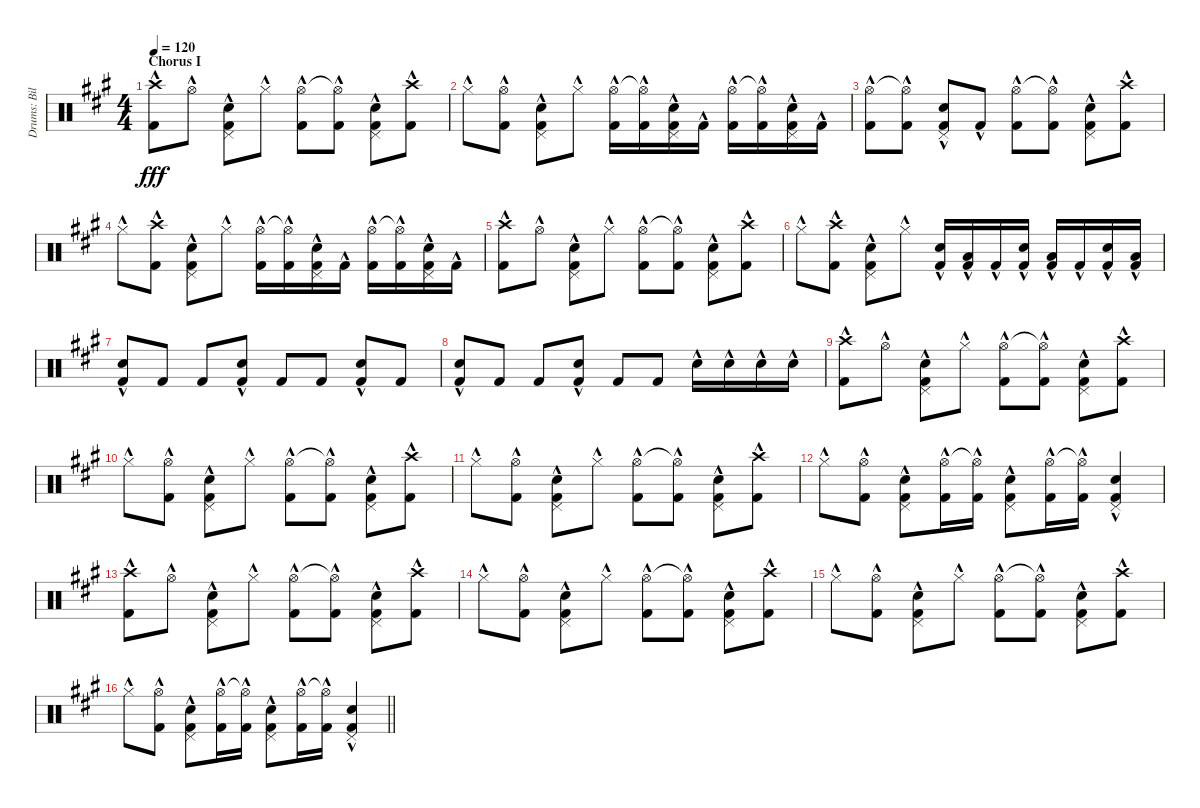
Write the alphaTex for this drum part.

\track ("Drums: Bill" "Drums: Bil") {instrument percussion}
\staff {score}
\articulation defaults
\ts (4 4)
\section ("" "Chorus I")
\tempo 120
\clef neutral
\ks a
("Crash high (hit)"{hac} "Kick (hit) 2"{hac}).8{dy fff} "Hi-Hat (open)"{hac}.8 ("Pedal Hi-Hat (hit)"{hac} "Snare (hit) 2"{hac} "Kick (hit) 2"{hac}).8 "Hi-Hat (closed)"{hac}.8 ("Hi-Hat (open)"{hac} "Kick (hit) 2"{hac}).8 ("Hi-Hat (open)"{t} "Kick (hit) 2"{hac}).8 ("Pedal Hi-Hat (hit)"{hac} "Snare (hit) 2"{hac} "Kick (hit) 2"{hac}).8 ("Crash high (hit)"{hac} "Kick (hit) 2"{hac}).8 |
"Hi-Hat (closed)"{hac}.8 ("Hi-Hat (open)"{hac} "Kick (hit) 2"{hac}).8 ("Pedal Hi-Hat (hit)"{hac} "Snare (hit) 2"{hac} "Kick (hit) 2"{hac}).8 "Hi-Hat (closed)"{hac}.8 ("Hi-Hat (open)"{hac} "Kick (hit) 2"{hac}).16 ("Hi-Hat (open)"{t} "Kick (hit) 2"{hac}).16 ("Pedal Hi-Hat (hit)"{hac} "Snare (hit) 2"{hac} "Kick (hit) 2"{hac}).16 "Kick (hit) 2"{hac}.16 ("Hi-Hat (open)"{hac} "Kick (hit) 2"{hac}).16 ("Hi-Hat (open)"{t} "Kick (hit) 2"{hac}).16 ("Pedal Hi-Hat (hit)"{hac} "Snare (hit) 2"{hac} "Kick (hit) 2"{hac}).16 "Kick (hit) 2"{hac}.16 |
("Hi-Hat (open)"{hac} "Kick (hit) 2"{hac}).8 ("Hi-Hat (open)"{t} "Kick (hit) 2"{hac}).8 ("Pedal Hi-Hat (hit)"{hac} "Snare (hit) 2"{hac} "Kick (hit) 2"{hac}).8 "Kick (hit) 2"{hac}.8 ("Hi-Hat (open)"{hac} "Kick (hit) 2"{hac}).8 ("Hi-Hat (open)"{t} "Kick (hit) 2"{hac}).8 ("Pedal Hi-Hat (hit)"{hac} "Snare (hit) 2"{hac} "Kick (hit) 2"{hac}).8 ("Crash high (hit)"{hac} "Kick (hit) 2"{hac}).8 |
"Hi-Hat (closed)"{hac}.8 ("Crash high (hit)"{hac} "Kick (hit) 2"{hac}).8 ("Pedal Hi-Hat (hit)"{hac} "Snare (hit) 2"{hac} "Kick (hit) 2"{hac}).8 "Hi-Hat (closed)"{hac}.8 ("Hi-Hat (open)"{hac} "Kick (hit) 2"{hac}).16 ("Hi-Hat (open)"{t} "Kick (hit) 2"{hac}).16 ("Pedal Hi-Hat (hit)"{hac} "Snare (hit) 2"{hac} "Kick (hit) 2"{hac}).16 "Kick (hit) 2"{hac}.16 ("Hi-Hat (open)"{hac} "Kick (hit) 2"{hac}).16 ("Hi-Hat (open)"{t} "Kick (hit) 2"{hac}).16 ("Pedal Hi-Hat (hit)"{hac} "Snare (hit) 2"{hac} "Kick (hit) 2"{hac}).16 "Kick (hit) 2"{hac}.16 |
("Crash high (hit)"{hac} "Kick (hit) 2"{hac}).8 "Hi-Hat (open)"{hac}.8 ("Pedal Hi-Hat (hit)"{hac} "Snare (hit) 2"{hac} "Kick (hit) 2"{hac}).8 "Hi-Hat (closed)"{hac}.8 ("Hi-Hat (open)"{hac} "Kick (hit) 2"{hac}).8 ("Hi-Hat (open)"{t} "Kick (hit) 2"{hac}).8 ("Pedal Hi-Hat (hit)"{hac} "Snare (hit) 2"{hac} "Kick (hit) 2"{hac}).8 ("Crash high (hit)"{hac} "Kick (hit) 2"{hac}).8 |
"Hi-Hat (closed)"{hac}.8 ("Crash high (hit)"{hac} "Kick (hit) 2"{hac}).8 ("Pedal Hi-Hat (hit)"{hac} "Snare (hit) 2"{hac} "Kick (hit) 2"{hac}).8 "Hi-Hat (closed)"{hac}.8 ("Snare (hit) 2" "Kick (hit) 2"{hac}).16 ("Low Tom (hit)" "Kick (hit) 2"{hac}).16 "Kick (hit) 2"{hac}.16 ("Snare (hit) 2" "Kick (hit) 2"{hac}).16 ("Low Tom (hit)" "Kick (hit) 2"{hac}).16 "Kick (hit) 2"{hac}.16 ("Snare (hit) 2" "Kick (hit) 2"{hac}).16 ("Low Tom (hit)" "Kick (hit) 2"{hac}).16 |
("Snare (hit) 2" "Kick (hit) 2"{hac}).8 "Kick (hit) 2".8 "Kick (hit) 2".8 ("Snare (hit) 2" "Kick (hit) 2"{hac}).8 "Kick (hit) 2".8 "Kick (hit) 2".8 ("Snare (hit) 2" "Kick (hit) 2"{hac}).8 "Kick (hit) 2".8 |
("Snare (hit) 2" "Kick (hit) 2"{hac}).8 "Kick (hit) 2".8 "Kick (hit) 2".8 ("Snare (hit) 2" "Kick (hit) 2"{hac}).8 "Kick (hit) 2".8 "Kick (hit) 2".8 "Snare (hit) 2"{hac}.16 "Snare (hit) 2"{hac}.16 "Snare (hit) 2"{hac}.16 "Snare (hit) 2"{hac}.16 |
("Crash high (hit)"{hac} "Kick (hit) 2"{hac}).8 "Hi-Hat (open)"{hac}.8 ("Pedal Hi-Hat (hit)"{hac} "Snare (hit) 2"{hac} "Kick (hit) 2"{hac}).8 "Hi-Hat (closed)"{hac}.8 ("Hi-Hat (open)"{hac} "Kick (hit) 2"{hac}).8 ("Hi-Hat (open)"{t} "Kick (hit) 2"{hac}).8 ("Pedal Hi-Hat (hit)"{hac} "Snare (hit) 2"{hac} "Kick (hit) 2"{hac}).8 ("Crash high (hit)"{hac} "Kick (hit) 2"{hac}).8 |
"Hi-Hat (closed)"{hac}.8 ("Hi-Hat (open)"{hac} "Kick (hit) 2"{hac}).8 ("Pedal Hi-Hat (hit)"{hac} "Snare (hit) 2"{hac} "Kick (hit) 2"{hac}).8 "Hi-Hat (closed)"{hac}.8 ("Hi-Hat (open)"{hac} "Kick (hit) 2"{hac}).8 ("Hi-Hat (open)"{t} "Kick (hit) 2"{hac}).8 ("Pedal Hi-Hat (hit)"{hac} "Snare (hit) 2"{hac} "Kick (hit) 2"{hac}).8 ("Crash high (hit)"{hac} "Kick (hit) 2"{hac}).8 |
"Hi-Hat (closed)"{hac}.8 ("Hi-Hat (open)"{hac} "Kick (hit) 2"{hac}).8 ("Pedal Hi-Hat (hit)"{hac} "Snare (hit) 2"{hac} "Kick (hit) 2"{hac}).8 "Hi-Hat (closed)"{hac}.8 ("Hi-Hat (open)"{hac} "Kick (hit) 2"{hac}).8 ("Hi-Hat (open)"{t} "Kick (hit) 2"{hac}).8 ("Pedal Hi-Hat (hit)"{hac} "Snare (hit) 2"{hac} "Kick (hit) 2"{hac}).8 ("Crash high (hit)"{hac} "Kick (hit) 2"{hac}).8 |
"Hi-Hat (closed)"{hac}.8 ("Hi-Hat (open)"{hac} "Kick (hit) 2"{hac}).8 ("Pedal Hi-Hat (hit)"{hac} "Snare (hit) 2"{hac} "Kick (hit) 2"{hac}).8 ("Hi-Hat (open)"{hac} "Kick (hit) 2"{hac}).16 ("Hi-Hat (open)"{t} "Kick (hit) 2"{hac}).16 ("Pedal Hi-Hat (hit)"{hac} "Snare (hit) 2"{hac} "Kick (hit) 2"{hac}).8 ("Hi-Hat (open)"{hac} "Kick (hit) 2"{hac}).16 ("Hi-Hat (open)"{t} "Kick (hit) 2"{hac}).16 ("Pedal Hi-Hat (hit)"{hac} "Snare (hit) 2"{hac} "Kick (hit) 2"{hac}).4 |
("Crash high (hit)"{hac} "Kick (hit) 2"{hac}).8 "Hi-Hat (open)"{hac}.8 ("Pedal Hi-Hat (hit)"{hac} "Snare (hit) 2"{hac} "Kick (hit) 2"{hac}).8 "Hi-Hat (closed)"{hac}.8 ("Hi-Hat (open)"{hac} "Kick (hit) 2"{hac}).8 ("Hi-Hat (open)"{t} "Kick (hit) 2"{hac}).8 ("Pedal Hi-Hat (hit)"{hac} "Snare (hit) 2"{hac} "Kick (hit) 2"{hac}).8 ("Crash high (hit)"{hac} "Kick (hit) 2"{hac}).8 |
"Hi-Hat (closed)"{hac}.8 ("Hi-Hat (open)"{hac} "Kick (hit) 2"{hac}).8 ("Pedal Hi-Hat (hit)"{hac} "Snare (hit) 2"{hac} "Kick (hit) 2"{hac}).8 "Hi-Hat (closed)"{hac}.8 ("Hi-Hat (open)"{hac} "Kick (hit) 2"{hac}).8 ("Hi-Hat (open)"{t} "Kick (hit) 2"{hac}).8 ("Pedal Hi-Hat (hit)"{hac} "Snare (hit) 2"{hac} "Kick (hit) 2"{hac}).8 ("Crash high (hit)"{hac} "Kick (hit) 2"{hac}).8 |
"Hi-Hat (closed)"{hac}.8 ("Hi-Hat (open)"{hac} "Kick (hit) 2"{hac}).8 ("Pedal Hi-Hat (hit)"{hac} "Snare (hit) 2"{hac} "Kick (hit) 2"{hac}).8 "Hi-Hat (closed)"{hac}.8 ("Hi-Hat (open)"{hac} "Kick (hit) 2"{hac}).8 ("Hi-Hat (open)"{t} "Kick (hit) 2"{hac}).8 ("Pedal Hi-Hat (hit)"{hac} "Snare (hit) 2"{hac} "Kick (hit) 2"{hac}).8 ("Crash high (hit)"{hac} "Kick (hit) 2"{hac}).8 |
\barLineRight lightlight "Hi-Hat (closed)"{hac}.8
("Hi-Hat (open)"{hac} "Kick (hit) 2"{hac}).8 ("Pedal Hi-Hat (hit)"{hac} "Snare (hit) 2"{hac} "Kick (hit) 2"{hac}).8 ("Hi-Hat (open)"{hac} "Kick (hit) 2"{hac}).16 ("Hi-Hat (open)"{t} "Kick (hit) 2"{hac}).16 ("Pedal Hi-Hat (hit)"{hac} "Snare (hit) 2"{hac} "Kick (hit) 2"{hac}).8 ("Hi-Hat (open)"{hac} "Kick (hit) 2"{hac}).16 ("Hi-Hat (open)"{t} "Kick (hit) 2"{hac}).16 ("Pedal Hi-Hat (hit)"{hac} "Snare (hit) 2"{hac} "Kick (hit) 2"{hac}).4
